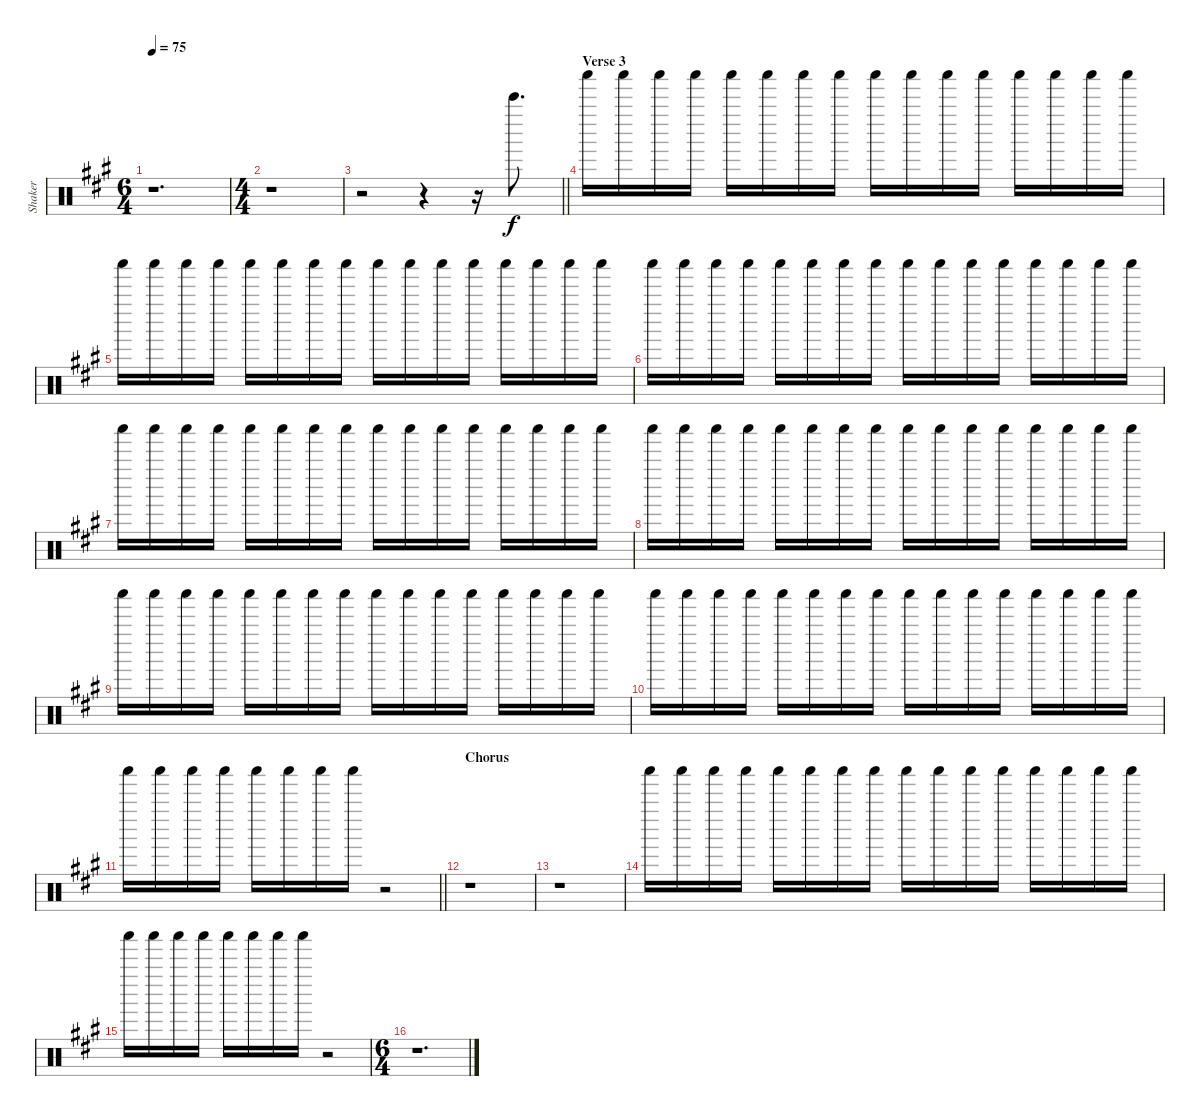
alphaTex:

\track ("Shaker" "Shaker") {instrument percussion}
\staff {score}
\articulation defaults
\ts (6 4)
\tempo 75
\clef neutral
\ks f#minor
r.1{d dy mf} |
\ts (4 4)
r.1 |
\barLineRight lightlight
r.2 r.4 r.16 "Bell Tree (hit)".8{d dy f} |
\section ("" "Verse 3")
"Shaker (hit)".16 "Shaker (hit)".16 "Shaker (hit)".16 "Shaker (hit)".16 "Shaker (hit)".16 "Shaker (hit)".16 "Shaker (hit)".16 "Shaker (hit)".16 "Shaker (hit)".16 "Shaker (hit)".16 "Shaker (hit)".16 "Shaker (hit)".16 "Shaker (hit)".16 "Shaker (hit)".16 "Shaker (hit)".16 "Shaker (hit)".16 |
"Shaker (hit)".16 "Shaker (hit)".16 "Shaker (hit)".16 "Shaker (hit)".16 "Shaker (hit)".16 "Shaker (hit)".16 "Shaker (hit)".16 "Shaker (hit)".16 "Shaker (hit)".16 "Shaker (hit)".16 "Shaker (hit)".16 "Shaker (hit)".16 "Shaker (hit)".16 "Shaker (hit)".16 "Shaker (hit)".16 "Shaker (hit)".16 |
"Shaker (hit)".16 "Shaker (hit)".16 "Shaker (hit)".16 "Shaker (hit)".16 "Shaker (hit)".16 "Shaker (hit)".16 "Shaker (hit)".16 "Shaker (hit)".16 "Shaker (hit)".16 "Shaker (hit)".16 "Shaker (hit)".16 "Shaker (hit)".16 "Shaker (hit)".16 "Shaker (hit)".16 "Shaker (hit)".16 "Shaker (hit)".16 |
"Shaker (hit)".16 "Shaker (hit)".16 "Shaker (hit)".16 "Shaker (hit)".16 "Shaker (hit)".16 "Shaker (hit)".16 "Shaker (hit)".16 "Shaker (hit)".16 "Shaker (hit)".16 "Shaker (hit)".16 "Shaker (hit)".16 "Shaker (hit)".16 "Shaker (hit)".16 "Shaker (hit)".16 "Shaker (hit)".16 "Shaker (hit)".16 |
"Shaker (hit)".16 "Shaker (hit)".16 "Shaker (hit)".16 "Shaker (hit)".16 "Shaker (hit)".16 "Shaker (hit)".16 "Shaker (hit)".16 "Shaker (hit)".16 "Shaker (hit)".16 "Shaker (hit)".16 "Shaker (hit)".16 "Shaker (hit)".16 "Shaker (hit)".16 "Shaker (hit)".16 "Shaker (hit)".16 "Shaker (hit)".16 |
"Shaker (hit)".16 "Shaker (hit)".16 "Shaker (hit)".16 "Shaker (hit)".16 "Shaker (hit)".16 "Shaker (hit)".16 "Shaker (hit)".16 "Shaker (hit)".16 "Shaker (hit)".16 "Shaker (hit)".16 "Shaker (hit)".16 "Shaker (hit)".16 "Shaker (hit)".16 "Shaker (hit)".16 "Shaker (hit)".16 "Shaker (hit)".16 |
"Shaker (hit)".16 "Shaker (hit)".16 "Shaker (hit)".16 "Shaker (hit)".16 "Shaker (hit)".16 "Shaker (hit)".16 "Shaker (hit)".16 "Shaker (hit)".16 "Shaker (hit)".16 "Shaker (hit)".16 "Shaker (hit)".16 "Shaker (hit)".16 "Shaker (hit)".16 "Shaker (hit)".16 "Shaker (hit)".16 "Shaker (hit)".16 |
\barLineRight lightlight "Shaker (hit)".16 "Shaker (hit)".16 "Shaker (hit)".16 "Shaker (hit)".16 "Shaker (hit)".16 "Shaker (hit)".16 "Shaker (hit)".16 "Shaker (hit)".16
r.2 |
\section ("" "Chorus")
r.1 |
r.1 |
"Shaker (hit)".16 "Shaker (hit)".16 "Shaker (hit)".16 "Shaker (hit)".16 "Shaker (hit)".16 "Shaker (hit)".16 "Shaker (hit)".16 "Shaker (hit)".16 "Shaker (hit)".16 "Shaker (hit)".16 "Shaker (hit)".16 "Shaker (hit)".16 "Shaker (hit)".16 "Shaker (hit)".16 "Shaker (hit)".16 "Shaker (hit)".16 |
"Shaker (hit)".16 "Shaker (hit)".16 "Shaker (hit)".16 "Shaker (hit)".16 "Shaker (hit)".16 "Shaker (hit)".16 "Shaker (hit)".16 "Shaker (hit)".16 r.2 |
\ts (6 4)
r.1{d}
